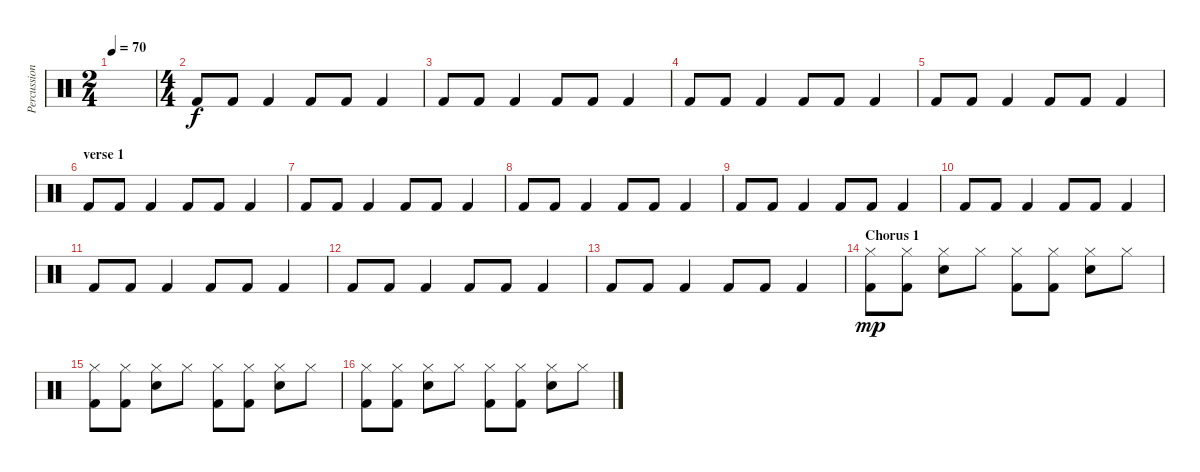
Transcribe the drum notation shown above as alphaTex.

\track ("Percussions" "Percussion") {instrument percussion}
\staff {score}
\articulation defaults
\ts (2 4)
\tempo 70
\clef neutral
\ks c
|
\ts (4 4)
"Kick (hit) 2".8 "Kick (hit) 2".8 "Kick (hit) 2".4 "Kick (hit) 2".8 "Kick (hit) 2".8 "Kick (hit) 2".4 |
"Kick (hit) 2".8 "Kick (hit) 2".8 "Kick (hit) 2".4 "Kick (hit) 2".8 "Kick (hit) 2".8 "Kick (hit) 2".4 |
"Kick (hit) 2".8 "Kick (hit) 2".8 "Kick (hit) 2".4 "Kick (hit) 2".8 "Kick (hit) 2".8 "Kick (hit) 2".4 |
"Kick (hit) 2".8 "Kick (hit) 2".8 "Kick (hit) 2".4 "Kick (hit) 2".8 "Kick (hit) 2".8 "Kick (hit) 2".4 |
\section ("" "verse 1")
"Kick (hit) 2".8 "Kick (hit) 2".8 "Kick (hit) 2".4 "Kick (hit) 2".8 "Kick (hit) 2".8 "Kick (hit) 2".4 |
"Kick (hit) 2".8 "Kick (hit) 2".8 "Kick (hit) 2".4 "Kick (hit) 2".8 "Kick (hit) 2".8 "Kick (hit) 2".4 |
"Kick (hit) 2".8 "Kick (hit) 2".8 "Kick (hit) 2".4 "Kick (hit) 2".8 "Kick (hit) 2".8 "Kick (hit) 2".4 |
"Kick (hit) 2".8 "Kick (hit) 2".8 "Kick (hit) 2".4 "Kick (hit) 2".8 "Kick (hit) 2".8 "Kick (hit) 2".4 |
"Kick (hit) 2".8 "Kick (hit) 2".8 "Kick (hit) 2".4 "Kick (hit) 2".8 "Kick (hit) 2".8 "Kick (hit) 2".4 |
"Kick (hit) 2".8 "Kick (hit) 2".8 "Kick (hit) 2".4 "Kick (hit) 2".8 "Kick (hit) 2".8 "Kick (hit) 2".4 |
"Kick (hit) 2".8 "Kick (hit) 2".8 "Kick (hit) 2".4 "Kick (hit) 2".8 "Kick (hit) 2".8 "Kick (hit) 2".4 |
"Kick (hit) 2".8 "Kick (hit) 2".8 "Kick (hit) 2".4 "Kick (hit) 2".8 "Kick (hit) 2".8 "Kick (hit) 2".4 |
\section ("" "Chorus 1")
("Kick (hit) 2" "Hi-Hat (closed)").8{dy mp} ("Kick (hit) 2" "Hi-Hat (closed)").8 ("Electric Snare (hit)" "Hi-Hat (closed)").8 "Hi-Hat (closed)".8 ("Kick (hit) 2" "Hi-Hat (closed)").8 ("Kick (hit) 2" "Hi-Hat (closed)").8 ("Electric Snare (hit)" "Hi-Hat (closed)").8 "Hi-Hat (closed)".8 |
("Kick (hit) 2" "Hi-Hat (closed)").8 ("Kick (hit) 2" "Hi-Hat (closed)").8 ("Electric Snare (hit)" "Hi-Hat (closed)").8 "Hi-Hat (closed)".8 ("Kick (hit) 2" "Hi-Hat (closed)").8 ("Kick (hit) 2" "Hi-Hat (closed)").8 ("Electric Snare (hit)" "Hi-Hat (closed)").8 "Hi-Hat (closed)".8 |
("Kick (hit) 2" "Hi-Hat (closed)").8 ("Kick (hit) 2" "Hi-Hat (closed)").8 ("Electric Snare (hit)" "Hi-Hat (closed)").8 "Hi-Hat (closed)".8 ("Kick (hit) 2" "Hi-Hat (closed)").8 ("Kick (hit) 2" "Hi-Hat (closed)").8 ("Electric Snare (hit)" "Hi-Hat (closed)").8 "Hi-Hat (closed)".8
